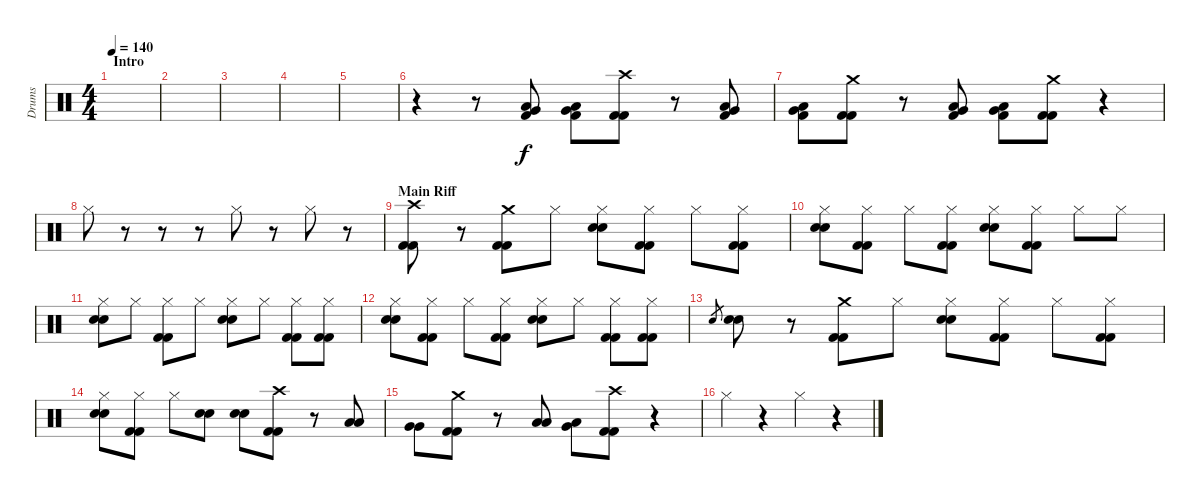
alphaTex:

\track ("Drums" "Drums") {instrument percussion}
\staff {score}
\articulation defaults
\ts (4 4)
\section ("" "Intro")
\tempo 140
\clef neutral
\ks c
|
|
|
|
|
r.4 r.8 ("Very Low Tom (hit)" "Low Tom (hit)" "Kick (hit) 2").8 ("Very Low Tom (hit)" "Low Tom (hit)" "Kick (hit) 2").8 ("Crash high (hit)" "Kick (hit) 2" "Kick (hit) 2").8 r.8 ("Very Low Tom (hit)" "Low Tom (hit)" "Kick (hit) 2").8 |
("Very Low Tom (hit)" "Low Tom (hit)" "Kick (hit) 2").8 ("Crash medium (hit)" "Kick (hit) 2" "Kick (hit) 2").8 r.8 ("Very Low Tom (hit)" "Low Tom (hit)" "Kick (hit) 2").8 ("Very Low Tom (hit)" "Low Tom (hit)" "Kick (hit) 2").8 ("Crash medium (hit)" "Kick (hit) 2" "Kick (hit) 2").8 r.4 |
"Hi-Hat (closed)".8 r.8 r.8 r.8 "Hi-Hat (closed)".8 r.8 "Hi-Hat (closed)".8 r.8 |
\section ("" "Main Riff")
("Crash high (hit)" "Kick (hit) 2" "Kick (hit) 2").8 r.8 ("Crash medium (hit)" "Kick (hit) 2" "Kick (hit) 2").8 "Hi-Hat (closed)".8 ("Hi-Hat (closed)" "Snare (hit) 2" "Snare (hit) 2").8 ("Hi-Hat (closed)" "Kick (hit) 2" "Kick (hit) 2").8 "Hi-Hat (closed)".8 ("Hi-Hat (closed)" "Kick (hit) 2" "Kick (hit) 2").8 |
("Hi-Hat (closed)" "Snare (hit) 2" "Snare (hit) 2").8 ("Hi-Hat (closed)" "Kick (hit) 2" "Kick (hit) 2").8 "Hi-Hat (closed)".8 ("Hi-Hat (closed)" "Kick (hit) 2" "Kick (hit) 2").8 ("Hi-Hat (closed)" "Snare (hit) 2" "Snare (hit) 2").8 ("Hi-Hat (closed)" "Kick (hit) 2" "Kick (hit) 2").8 "Hi-Hat (closed)".8 "Hi-Hat (closed)".8 |
("Hi-Hat (closed)" "Snare (hit) 2" "Snare (hit) 2").8 "Hi-Hat (closed)".8 ("Hi-Hat (closed)" "Kick (hit) 2" "Kick (hit) 2").8 "Hi-Hat (closed)".8 ("Hi-Hat (closed)" "Snare (hit) 2" "Snare (hit) 2").8 "Hi-Hat (closed)".8 ("Hi-Hat (closed)" "Kick (hit) 2" "Kick (hit) 2").8 ("Hi-Hat (closed)" "Kick (hit) 2" "Kick (hit) 2").8 |
("Hi-Hat (closed)" "Snare (hit) 2" "Snare (hit) 2").8 ("Hi-Hat (closed)" "Kick (hit) 2" "Kick (hit) 2").8 "Hi-Hat (closed)".8 ("Hi-Hat (closed)" "Kick (hit) 2" "Kick (hit) 2").8 ("Hi-Hat (closed)" "Snare (hit) 2" "Snare (hit) 2").8 "Hi-Hat (closed)".8 ("Hi-Hat (closed)" "Kick (hit) 2" "Kick (hit) 2").8 ("Hi-Hat (closed)" "Kick (hit) 2" "Kick (hit) 2").8 |
"Snare (hit) 2".8{gr} ("Snare (hit) 2" "Snare (hit) 2").8 r.8 ("Crash medium (hit)" "Kick (hit) 2" "Kick (hit) 2").8 "Hi-Hat (closed)".8 ("Hi-Hat (closed)" "Snare (hit) 2" "Snare (hit) 2").8 ("Hi-Hat (closed)" "Kick (hit) 2" "Kick (hit) 2").8 "Hi-Hat (closed)".8 ("Hi-Hat (closed)" "Kick (hit) 2" "Kick (hit) 2").8 |
("Hi-Hat (closed)" "Snare (hit) 2" "Snare (hit) 2").8 ("Hi-Hat (closed)" "Kick (hit) 2" "Kick (hit) 2").8 "Hi-Hat (closed)".8 ("Snare (hit) 2" "Snare (hit) 2").8 ("Snare (hit) 2" "Snare (hit) 2").8 ("Crash high (hit)" "Kick (hit) 2" "Kick (hit) 2").8 r.8 ("Low Tom (hit)" "Low Tom (hit)").8 |
("Very Low Tom (hit)" "Very Low Tom (hit)").8 ("Crash medium (hit)" "Kick (hit) 2" "Kick (hit) 2").8 r.8 ("Low Tom (hit)" "Low Tom (hit)").8 ("Very Low Tom (hit)" "Low Tom (hit)").8 ("Crash high (hit)" "Kick (hit) 2" "Kick (hit) 2").8 r.4 |
"Hi-Hat (closed)".4 r.4 "Hi-Hat (closed)".4 r.4
